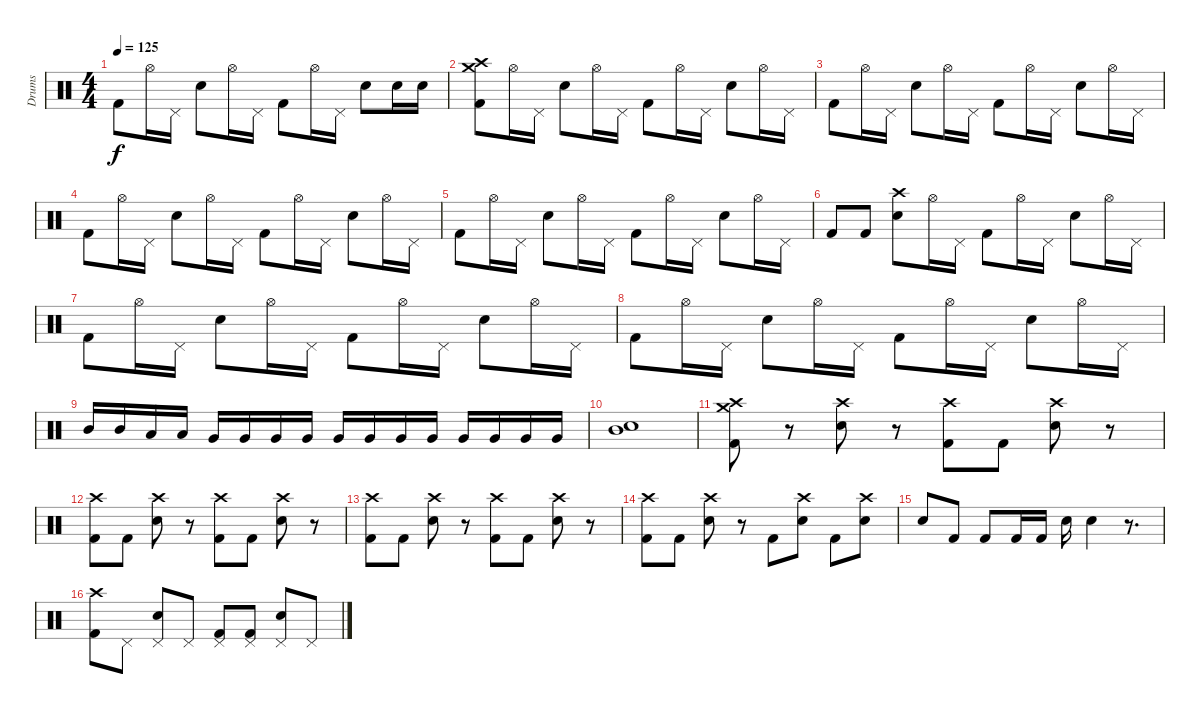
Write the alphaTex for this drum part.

\track ("Drums" "Drums") {instrument percussion}
\staff {score}
\articulation defaults
\ts (4 4)
\tempo 125
\clef neutral
\ks c "Kick (hit) 2".8{dy f} "Hi-Hat (open)".16 "Pedal Hi-Hat (hit)".16 "Snare (hit) 2".8 "Hi-Hat (open)".16 "Pedal Hi-Hat (hit)".16 "Kick (hit) 2".8 "Hi-Hat (open)".16 "Pedal Hi-Hat (hit)".16 "Snare (hit) 2".8 "Snare (hit) 2".16 "Snare (hit) 2".16
|
("Crash high (hit)" "Crash medium (hit)" "Kick (hit) 2").8 "Hi-Hat (open)".16 "Pedal Hi-Hat (hit)".16 "Snare (hit) 2".8 "Hi-Hat (open)".16 "Pedal Hi-Hat (hit)".16 "Kick (hit) 2".8 "Hi-Hat (open)".16 "Pedal Hi-Hat (hit)".16 "Snare (hit) 2".8 "Hi-Hat (open)".16 "Pedal Hi-Hat (hit)".16 |
"Kick (hit) 2".8 "Hi-Hat (open)".16 "Pedal Hi-Hat (hit)".16 "Snare (hit) 2".8 "Hi-Hat (open)".16 "Pedal Hi-Hat (hit)".16 "Kick (hit) 2".8 "Hi-Hat (open)".16 "Pedal Hi-Hat (hit)".16 "Snare (hit) 2".8 "Hi-Hat (open)".16 "Pedal Hi-Hat (hit)".16 |
"Kick (hit) 2".8 "Hi-Hat (open)".16 "Pedal Hi-Hat (hit)".16 "Snare (hit) 2".8 "Hi-Hat (open)".16 "Pedal Hi-Hat (hit)".16 "Kick (hit) 2".8 "Hi-Hat (open)".16 "Pedal Hi-Hat (hit)".16 "Snare (hit) 2".8 "Hi-Hat (open)".16 "Pedal Hi-Hat (hit)".16 |
"Kick (hit) 2".8 "Hi-Hat (open)".16 "Pedal Hi-Hat (hit)".16 "Snare (hit) 2".8 "Hi-Hat (open)".16 "Pedal Hi-Hat (hit)".16 "Kick (hit) 2".8 "Hi-Hat (open)".16 "Pedal Hi-Hat (hit)".16 "Snare (hit) 2".8 "Hi-Hat (open)".16 "Pedal Hi-Hat (hit)".16 |
"Kick (hit) 2".8 "Kick (hit) 2".8 ("Crash high (hit)" "Snare (hit) 2").8 "Hi-Hat (open)".16 "Pedal Hi-Hat (hit)".16 "Kick (hit) 2".8 "Hi-Hat (open)".16 "Pedal Hi-Hat (hit)".16 "Snare (hit) 2".8 "Hi-Hat (open)".16 "Pedal Hi-Hat (hit)".16 |
"Kick (hit) 2".8 "Hi-Hat (open)".16 "Pedal Hi-Hat (hit)".16 "Snare (hit) 2".8 "Hi-Hat (open)".16 "Pedal Hi-Hat (hit)".16 "Kick (hit) 2".8 "Hi-Hat (open)".16 "Pedal Hi-Hat (hit)".16 "Snare (hit) 2".8 "Hi-Hat (open)".16 "Pedal Hi-Hat (hit)".16 |
"Kick (hit) 2".8 "Hi-Hat (open)".16 "Pedal Hi-Hat (hit)".16 "Snare (hit) 2".8 "Hi-Hat (open)".16 "Pedal Hi-Hat (hit)".16 "Kick (hit) 2".8 "Hi-Hat (open)".16 "Pedal Hi-Hat (hit)".16 "Snare (hit) 2".8 "Hi-Hat (open)".16 "Pedal Hi-Hat (hit)".16 |
"Mid Tom (hit)".16 "Mid Tom (hit)".16 "Low Tom (hit)".16 "Low Tom (hit)".16 "Very Low Tom (hit)".16 "Very Low Tom (hit)".16 "Very Low Tom (hit)".16 "Very Low Tom (hit)".16 "Very Low Tom (hit)".16 "Very Low Tom (hit)".16 "Very Low Tom (hit)".16 "Very Low Tom (hit)".16 "Very Low Tom (hit)".16 "Very Low Tom (hit)".16 "Very Low Tom (hit)".16 "Very Low Tom (hit)".16 |
("Snare (hit) 2" "Mid Tom (hit)").1 |
("Crash medium (hit)" "Crash high (hit)" "Kick (hit) 2").8 r.8 ("Crash high (hit)" "Snare (hit) 2").8 r.8 ("Crash high (hit)" "Kick (hit) 2").8 "Kick (hit) 2".8 ("Crash high (hit)" "Snare (hit) 2").8 r.8 |
("Crash high (hit)" "Kick (hit) 2").8 "Kick (hit) 2".8 ("Crash high (hit)" "Snare (hit) 2").8 r.8 ("Crash high (hit)" "Kick (hit) 2").8 "Kick (hit) 2".8 ("Crash high (hit)" "Snare (hit) 2").8 r.8 |
("Crash high (hit)" "Kick (hit) 2").8 "Kick (hit) 2".8 ("Crash high (hit)" "Snare (hit) 2").8 r.8 ("Crash high (hit)" "Kick (hit) 2").8 "Kick (hit) 2".8 ("Crash high (hit)" "Snare (hit) 2").8 r.8 |
("Crash high (hit)" "Kick (hit) 2").8 "Kick (hit) 2".8 ("Crash high (hit)" "Snare (hit) 2").8 r.8 "Kick (hit) 2".8 ("Crash high (hit)" "Snare (hit) 2").8 "Kick (hit) 2".8 ("Crash high (hit)" "Snare (hit) 2").8 |
"Snare (hit) 2".8 "Kick (hit) 2".8 "Kick (hit) 2".8 "Kick (hit) 2".16 "Kick (hit) 2".16 "Snare (hit) 2".16 "Snare (hit) 2".4 r.8{d} |
("Crash high (hit)" "Kick (hit) 2").8 "Pedal Hi-Hat (hit)".8 ("Pedal Hi-Hat (hit)" "Snare (hit) 2").8 "Pedal Hi-Hat (hit)".8 ("Pedal Hi-Hat (hit)" "Kick (hit) 2").8 ("Pedal Hi-Hat (hit)" "Kick (hit) 2").8 ("Pedal Hi-Hat (hit)" "Snare (hit) 2").8 "Pedal Hi-Hat (hit)".8
